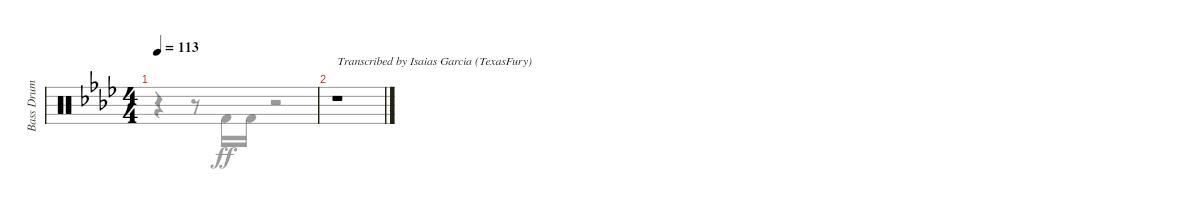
\track ("Bass Drum" "Bass Drum") {instrument percussion}
\staff {score}
\articulation defaults
\voice
\ts (4 4)
\tempo 113
\clef neutral
\ks fminor
|
r.1{txt "Transcribed by Isaias Garcia (TexasFury)"}
\voice
\clef neutral
\ottava regular
\simile none
\ks fminor
r.4{dy ff} r.8 "Kick (hit) 2".16 "Kick (hit) 2".16 r.2 |
r.1
